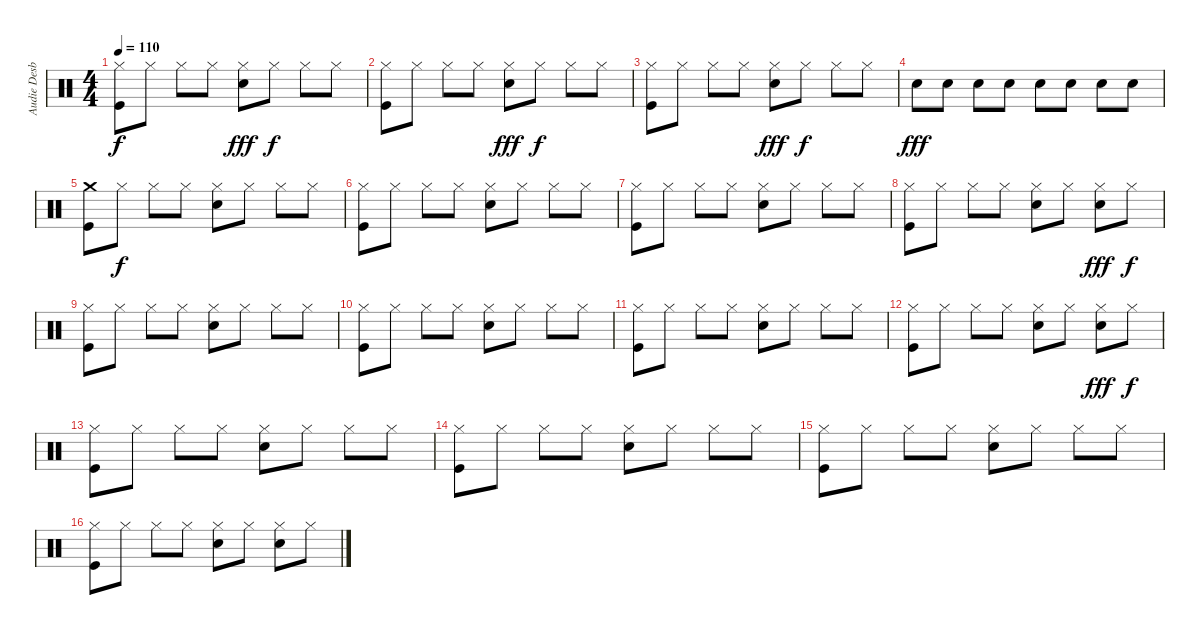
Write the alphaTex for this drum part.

\track ("Audie Desbrow" "Audie Desb") {instrument percussion}
\staff {score}
\articulation defaults
\ts (4 4)
\tempo 110
\clef neutral
\ks c
("Hi-Hat (closed)" "Kick (hit)").8{dy f} "Hi-Hat (closed)".8 "Hi-Hat (closed)".8 "Hi-Hat (closed)".8 ("Hi-Hat (closed)" "Snare (hit) 2").8{dy fff} "Hi-Hat (closed)".8{dy f} "Hi-Hat (closed)".8 "Hi-Hat (closed)".8 |
("Hi-Hat (closed)" "Kick (hit)").8 "Hi-Hat (closed)".8 "Hi-Hat (closed)".8 "Hi-Hat (closed)".8 ("Hi-Hat (closed)" "Snare (hit) 2").8{dy fff} "Hi-Hat (closed)".8{dy f} "Hi-Hat (closed)".8 "Hi-Hat (closed)".8 |
("Hi-Hat (closed)" "Kick (hit)").8 "Hi-Hat (closed)".8 "Hi-Hat (closed)".8 "Hi-Hat (closed)".8 ("Hi-Hat (closed)" "Snare (hit) 2").8{dy fff} "Hi-Hat (closed)".8{dy f} "Hi-Hat (closed)".8 "Hi-Hat (closed)".8 |
"Snare (hit) 2".8{dy fff} "Snare (hit) 2".8 "Snare (hit) 2".8 "Snare (hit) 2".8 "Snare (hit) 2".8 "Snare (hit) 2".8 "Snare (hit) 2".8 "Snare (hit) 2".8 |
("Crash medium (hit)" "Kick (hit)").8 "Hi-Hat (closed)".8{dy f} "Hi-Hat (closed)".8 "Hi-Hat (closed)".8 ("Hi-Hat (closed)" "Snare (hit) 2").8 "Hi-Hat (closed)".8 "Hi-Hat (closed)".8 "Hi-Hat (closed)".8 |
("Hi-Hat (closed)" "Kick (hit)").8 "Hi-Hat (closed)".8 "Hi-Hat (closed)".8 "Hi-Hat (closed)".8 ("Hi-Hat (closed)" "Snare (hit) 2").8 "Hi-Hat (closed)".8 "Hi-Hat (closed)".8 "Hi-Hat (closed)".8 |
("Hi-Hat (closed)" "Kick (hit)").8 "Hi-Hat (closed)".8 "Hi-Hat (closed)".8 "Hi-Hat (closed)".8 ("Hi-Hat (closed)" "Snare (hit) 2").8 "Hi-Hat (closed)".8 "Hi-Hat (closed)".8 "Hi-Hat (closed)".8 |
("Hi-Hat (closed)" "Kick (hit)").8 "Hi-Hat (closed)".8 "Hi-Hat (closed)".8 "Hi-Hat (closed)".8 ("Hi-Hat (closed)" "Snare (hit) 2").8 "Hi-Hat (closed)".8 ("Hi-Hat (closed)" "Snare (hit) 2").8{dy fff} "Hi-Hat (closed)".8{dy f} |
("Hi-Hat (closed)" "Kick (hit)").8 "Hi-Hat (closed)".8 "Hi-Hat (closed)".8 "Hi-Hat (closed)".8 ("Hi-Hat (closed)" "Snare (hit) 2").8 "Hi-Hat (closed)".8 "Hi-Hat (closed)".8 "Hi-Hat (closed)".8 |
("Hi-Hat (closed)" "Kick (hit)").8 "Hi-Hat (closed)".8 "Hi-Hat (closed)".8 "Hi-Hat (closed)".8 ("Hi-Hat (closed)" "Snare (hit) 2").8 "Hi-Hat (closed)".8 "Hi-Hat (closed)".8 "Hi-Hat (closed)".8 |
("Hi-Hat (closed)" "Kick (hit)").8 "Hi-Hat (closed)".8 "Hi-Hat (closed)".8 "Hi-Hat (closed)".8 ("Hi-Hat (closed)" "Snare (hit) 2").8 "Hi-Hat (closed)".8 "Hi-Hat (closed)".8 "Hi-Hat (closed)".8 |
("Hi-Hat (closed)" "Kick (hit)").8 "Hi-Hat (closed)".8 "Hi-Hat (closed)".8 "Hi-Hat (closed)".8 ("Hi-Hat (closed)" "Snare (hit) 2").8 "Hi-Hat (closed)".8 ("Hi-Hat (closed)" "Snare (hit) 2").8{dy fff} "Hi-Hat (closed)".8{dy f} |
("Hi-Hat (closed)" "Kick (hit)").8 "Hi-Hat (closed)".8 "Hi-Hat (closed)".8 "Hi-Hat (closed)".8 ("Hi-Hat (closed)" "Snare (hit) 2").8 "Hi-Hat (closed)".8 "Hi-Hat (closed)".8 "Hi-Hat (closed)".8 |
("Hi-Hat (closed)" "Kick (hit)").8 "Hi-Hat (closed)".8 "Hi-Hat (closed)".8 "Hi-Hat (closed)".8 ("Hi-Hat (closed)" "Snare (hit) 2").8 "Hi-Hat (closed)".8 "Hi-Hat (closed)".8 "Hi-Hat (closed)".8 |
("Hi-Hat (closed)" "Kick (hit)").8 "Hi-Hat (closed)".8 "Hi-Hat (closed)".8 "Hi-Hat (closed)".8 ("Hi-Hat (closed)" "Snare (hit) 2").8 "Hi-Hat (closed)".8 "Hi-Hat (closed)".8 "Hi-Hat (closed)".8 |
("Hi-Hat (closed)" "Kick (hit)").8 "Hi-Hat (closed)".8 "Hi-Hat (closed)".8 "Hi-Hat (closed)".8 ("Hi-Hat (closed)" "Snare (hit) 2").8 "Hi-Hat (closed)".8 ("Hi-Hat (closed)" "Snare (hit) 2").8 "Hi-Hat (closed)".8
